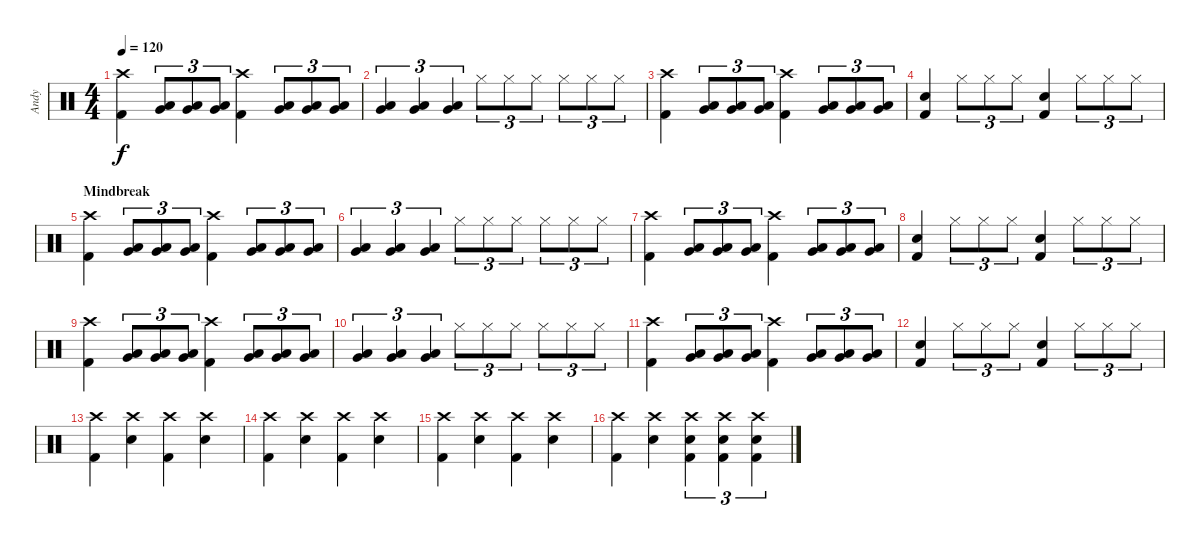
\track ("Andy" "Andy") {instrument percussion}
\staff {score}
\articulation defaults
\ts (4 4)
\tempo 120
\clef neutral
\ks c
("Crash high (hit)" "Kick (hit) 2").4{dy f} ("Very Low Tom (hit)" "Low Tom (hit)").8{tu (3 2)} ("Very Low Tom (hit)" "Low Tom (hit)").8{tu (3 2)} ("Very Low Tom (hit)" "Low Tom (hit)").8{tu (3 2)} ("Crash high (hit)" "Kick (hit) 2").4 ("Very Low Tom (hit)" "Low Tom (hit)").8{tu (3 2)} ("Very Low Tom (hit)" "Low Tom (hit)").8{tu (3 2)} ("Very Low Tom (hit)" "Low Tom (hit)").8{tu (3 2)} |
("Very Low Tom (hit)" "Low Tom (hit)").4{tu (3 2)} ("Very Low Tom (hit)" "Low Tom (hit)").4{tu (3 2)} ("Very Low Tom (hit)" "Low Tom (hit)").4{tu (3 2)} "Hi-Hat (closed)".8{tu (3 2)} "Hi-Hat (closed)".8{tu (3 2)} "Hi-Hat (closed)".8{tu (3 2)} "Hi-Hat (closed)".8{tu (3 2)} "Hi-Hat (closed)".8{tu (3 2)} "Hi-Hat (closed)".8{tu (3 2)} |
("Crash high (hit)" "Kick (hit) 2").4 ("Very Low Tom (hit)" "Low Tom (hit)").8{tu (3 2)} ("Very Low Tom (hit)" "Low Tom (hit)").8{tu (3 2)} ("Very Low Tom (hit)" "Low Tom (hit)").8{tu (3 2)} ("Crash high (hit)" "Kick (hit) 2").4 ("Very Low Tom (hit)" "Low Tom (hit)").8{tu (3 2)} ("Very Low Tom (hit)" "Low Tom (hit)").8{tu (3 2)} ("Very Low Tom (hit)" "Low Tom (hit)").8{tu (3 2)} |
("Snare (hit) 2" "Kick (hit) 2").4 "Hi-Hat (closed)".8{tu (3 2)} "Hi-Hat (closed)".8{tu (3 2)} "Hi-Hat (closed)".8{tu (3 2)} ("Snare (hit) 2" "Kick (hit) 2").4 "Hi-Hat (closed)".8{tu (3 2)} "Hi-Hat (closed)".8{tu (3 2)} "Hi-Hat (closed)".8{tu (3 2)} |
\section ("" "Mindbreak")
("Crash high (hit)" "Kick (hit) 2").4 ("Very Low Tom (hit)" "Low Tom (hit)").8{tu (3 2)} ("Very Low Tom (hit)" "Low Tom (hit)").8{tu (3 2)} ("Very Low Tom (hit)" "Low Tom (hit)").8{tu (3 2)} ("Crash high (hit)" "Kick (hit) 2").4 ("Very Low Tom (hit)" "Low Tom (hit)").8{tu (3 2)} ("Very Low Tom (hit)" "Low Tom (hit)").8{tu (3 2)} ("Very Low Tom (hit)" "Low Tom (hit)").8{tu (3 2)} |
("Very Low Tom (hit)" "Low Tom (hit)").4{tu (3 2)} ("Very Low Tom (hit)" "Low Tom (hit)").4{tu (3 2)} ("Very Low Tom (hit)" "Low Tom (hit)").4{tu (3 2)} "Hi-Hat (closed)".8{tu (3 2)} "Hi-Hat (closed)".8{tu (3 2)} "Hi-Hat (closed)".8{tu (3 2)} "Hi-Hat (closed)".8{tu (3 2)} "Hi-Hat (closed)".8{tu (3 2)} "Hi-Hat (closed)".8{tu (3 2)} |
("Crash high (hit)" "Kick (hit) 2").4 ("Very Low Tom (hit)" "Low Tom (hit)").8{tu (3 2)} ("Very Low Tom (hit)" "Low Tom (hit)").8{tu (3 2)} ("Very Low Tom (hit)" "Low Tom (hit)").8{tu (3 2)} ("Crash high (hit)" "Kick (hit) 2").4 ("Very Low Tom (hit)" "Low Tom (hit)").8{tu (3 2)} ("Very Low Tom (hit)" "Low Tom (hit)").8{tu (3 2)} ("Very Low Tom (hit)" "Low Tom (hit)").8{tu (3 2)} |
("Snare (hit) 2" "Kick (hit) 2").4 "Hi-Hat (closed)".8{tu (3 2)} "Hi-Hat (closed)".8{tu (3 2)} "Hi-Hat (closed)".8{tu (3 2)} ("Snare (hit) 2" "Kick (hit) 2").4 "Hi-Hat (closed)".8{tu (3 2)} "Hi-Hat (closed)".8{tu (3 2)} "Hi-Hat (closed)".8{tu (3 2)} |
("Crash high (hit)" "Kick (hit) 2").4 ("Very Low Tom (hit)" "Low Tom (hit)").8{tu (3 2)} ("Very Low Tom (hit)" "Low Tom (hit)").8{tu (3 2)} ("Very Low Tom (hit)" "Low Tom (hit)").8{tu (3 2)} ("Crash high (hit)" "Kick (hit) 2").4 ("Very Low Tom (hit)" "Low Tom (hit)").8{tu (3 2)} ("Very Low Tom (hit)" "Low Tom (hit)").8{tu (3 2)} ("Very Low Tom (hit)" "Low Tom (hit)").8{tu (3 2)} |
("Very Low Tom (hit)" "Low Tom (hit)").4{tu (3 2)} ("Very Low Tom (hit)" "Low Tom (hit)").4{tu (3 2)} ("Very Low Tom (hit)" "Low Tom (hit)").4{tu (3 2)} "Hi-Hat (closed)".8{tu (3 2)} "Hi-Hat (closed)".8{tu (3 2)} "Hi-Hat (closed)".8{tu (3 2)} "Hi-Hat (closed)".8{tu (3 2)} "Hi-Hat (closed)".8{tu (3 2)} "Hi-Hat (closed)".8{tu (3 2)} |
("Crash high (hit)" "Kick (hit) 2").4 ("Very Low Tom (hit)" "Low Tom (hit)").8{tu (3 2)} ("Very Low Tom (hit)" "Low Tom (hit)").8{tu (3 2)} ("Very Low Tom (hit)" "Low Tom (hit)").8{tu (3 2)} ("Crash high (hit)" "Kick (hit) 2").4 ("Very Low Tom (hit)" "Low Tom (hit)").8{tu (3 2)} ("Very Low Tom (hit)" "Low Tom (hit)").8{tu (3 2)} ("Very Low Tom (hit)" "Low Tom (hit)").8{tu (3 2)} |
("Snare (hit) 2" "Kick (hit) 2").4 "Hi-Hat (closed)".8{tu (3 2)} "Hi-Hat (closed)".8{tu (3 2)} "Hi-Hat (closed)".8{tu (3 2)} ("Snare (hit) 2" "Kick (hit) 2").4 "Hi-Hat (closed)".8{tu (3 2)} "Hi-Hat (closed)".8{tu (3 2)} "Hi-Hat (closed)".8{tu (3 2)} |
("Crash high (hit)" "Kick (hit) 2").4 ("Crash high (hit)" "Snare (hit) 2").4 ("Crash high (hit)" "Kick (hit) 2").4 ("Crash high (hit)" "Snare (hit) 2").4 |
("Crash high (hit)" "Kick (hit) 2").4 ("Crash high (hit)" "Snare (hit) 2").4 ("Crash high (hit)" "Kick (hit) 2").4 ("Crash high (hit)" "Snare (hit) 2").4 |
("Crash high (hit)" "Kick (hit) 2").4 ("Crash high (hit)" "Snare (hit) 2").4 ("Crash high (hit)" "Kick (hit) 2").4 ("Crash high (hit)" "Snare (hit) 2").4 |
("Crash high (hit)" "Kick (hit) 2").4 ("Crash high (hit)" "Snare (hit) 2").4 ("Crash high (hit)" "Snare (hit) 2" "Kick (hit) 2").4{tu (3 2)} ("Crash high (hit)" "Snare (hit) 2" "Kick (hit) 2").4{tu (3 2)} ("Crash high (hit)" "Snare (hit) 2" "Kick (hit) 2").4{tu (3 2)}
